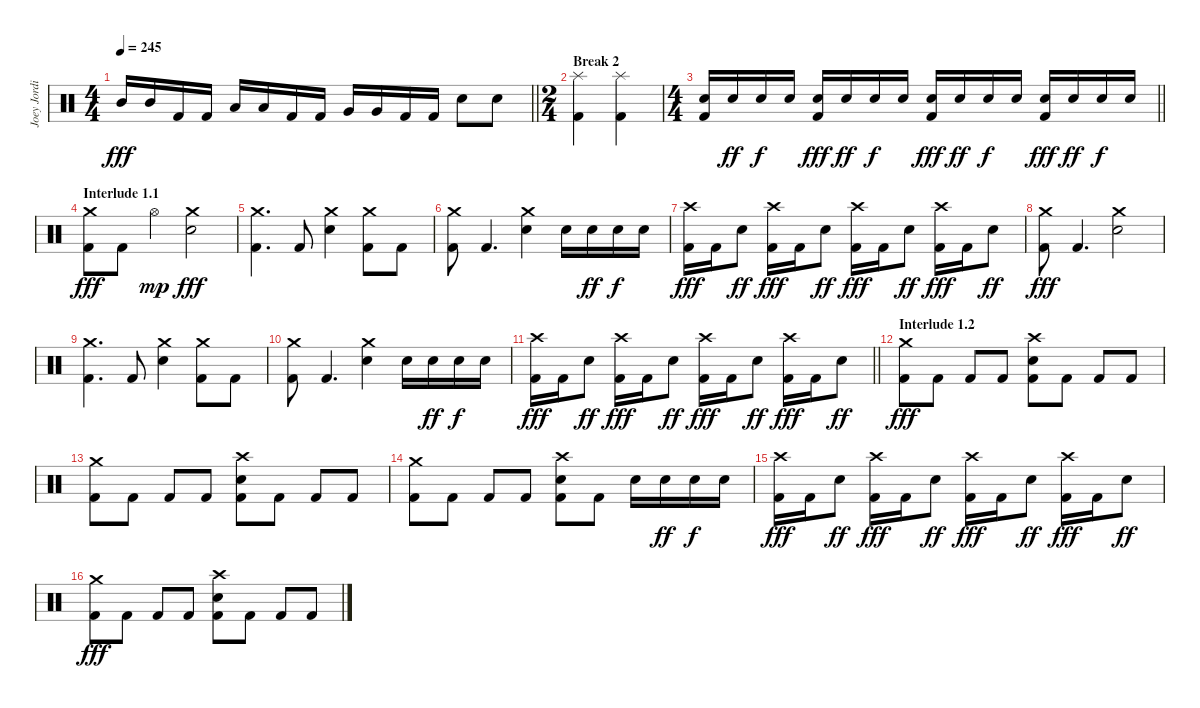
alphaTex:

\track ("Joey Jordison" "Joey Jordi") {instrument percussion}
\staff {score}
\articulation defaults
\ts (4 4)
\tempo 245
\clef neutral
\barLineRight lightlight
\ks c "Mid Tom (hit)".16{dy fff} "Mid Tom (hit)".16 "Kick (hit) 2".16 "Kick (hit) 2".16 "Low Tom (hit)".16 "Low Tom (hit)".16 "Kick (hit) 2".16 "Kick (hit) 2".16 "Very Low Tom (hit)".16 "Very Low Tom (hit)".16 "Kick (hit) 2".16 "Kick (hit) 2".16 "Electric Snare (hit)".8 "Electric Snare (hit)".8
|
\ts (2 4)
\section ("" "Break 2")
("Splash (hit)" "Kick (hit) 2").4 ("Splash (hit)" "Kick (hit) 2").4 |
\ts (4 4)
\barLineRight lightlight
("Electric Snare (hit)" "Kick (hit) 2").16 "Electric Snare (hit)".16{dy ff} "Electric Snare (hit)".16{dy f} "Electric Snare (hit)".16 ("Electric Snare (hit)" "Kick (hit) 2").16{dy fff} "Electric Snare (hit)".16{dy ff} "Electric Snare (hit)".16{dy f} "Electric Snare (hit)".16 ("Electric Snare (hit)" "Kick (hit) 2").16{dy fff} "Electric Snare (hit)".16{dy ff} "Electric Snare (hit)".16{dy f} "Electric Snare (hit)".16 ("Electric Snare (hit)" "Kick (hit) 2").16{dy fff} "Electric Snare (hit)".16{dy ff} "Electric Snare (hit)".16{dy f} "Electric Snare (hit)".16 |
\section ("" "Interlude 1.1")
("Crash medium (hit)" "Kick (hit) 2").8{dy fff} "Kick (hit) 2".8 "Hi-Hat (open)".4{dy mp} ("Crash medium (hit)" "Electric Snare (hit)").2{dy fff} |
("Crash medium (hit)" "Kick (hit) 2").4{d} "Kick (hit) 2".8 ("Crash medium (hit)" "Electric Snare (hit)").4 ("Crash medium (hit)" "Kick (hit) 2").8 "Kick (hit) 2".8 |
("Crash medium (hit)" "Kick (hit) 2").8 "Kick (hit) 2".4{d} ("Crash medium (hit)" "Electric Snare (hit)").4 "Electric Snare (hit)".16 "Electric Snare (hit)".16{dy ff} "Electric Snare (hit)".16{dy f} "Electric Snare (hit)".16 |
("Crash high (hit)" "Kick (hit) 2").16{dy fff} "Kick (hit) 2".16 "Electric Snare (hit)".8{dy ff} ("Crash high (hit)" "Kick (hit) 2").16{dy fff} "Kick (hit) 2".16 "Electric Snare (hit)".8{dy ff} ("Crash high (hit)" "Kick (hit) 2").16{dy fff} "Kick (hit) 2".16 "Electric Snare (hit)".8{dy ff} ("Crash high (hit)" "Kick (hit) 2").16{dy fff} "Kick (hit) 2".16 "Electric Snare (hit)".8{dy ff} |
("Crash medium (hit)" "Kick (hit) 2").8{dy fff} "Kick (hit) 2".4{d} ("Crash medium (hit)" "Electric Snare (hit)").2 |
("Crash medium (hit)" "Kick (hit) 2").4{d} "Kick (hit) 2".8 ("Crash medium (hit)" "Electric Snare (hit)").4 ("Crash medium (hit)" "Kick (hit) 2").8 "Kick (hit) 2".8 |
("Crash medium (hit)" "Kick (hit) 2").8 "Kick (hit) 2".4{d} ("Crash medium (hit)" "Electric Snare (hit)").4 "Electric Snare (hit)".16 "Electric Snare (hit)".16{dy ff} "Electric Snare (hit)".16{dy f} "Electric Snare (hit)".16 |
\barLineRight lightlight
("Crash high (hit)" "Kick (hit) 2").16{dy fff} "Kick (hit) 2".16 "Electric Snare (hit)".8{dy ff} ("Crash high (hit)" "Kick (hit) 2").16{dy fff} "Kick (hit) 2".16 "Electric Snare (hit)".8{dy ff} ("Crash high (hit)" "Kick (hit) 2").16{dy fff} "Kick (hit) 2".16 "Electric Snare (hit)".8{dy ff} ("Crash high (hit)" "Kick (hit) 2").16{dy fff} "Kick (hit) 2".16 "Electric Snare (hit)".8{dy ff} |
\section ("" "Interlude 1.2")
("Crash medium (hit)" "Kick (hit) 2").8{dy fff} "Kick (hit) 2".8 "Kick (hit) 2".8 "Kick (hit) 2".8 ("Crash high (hit)" "Electric Snare (hit)" "Kick (hit) 2").8 "Kick (hit) 2".8 "Kick (hit) 2".8 "Kick (hit) 2".8 |
("Crash medium (hit)" "Kick (hit) 2").8 "Kick (hit) 2".8 "Kick (hit) 2".8 "Kick (hit) 2".8 ("Crash high (hit)" "Electric Snare (hit)" "Kick (hit) 2").8 "Kick (hit) 2".8 "Kick (hit) 2".8 "Kick (hit) 2".8 |
("Crash medium (hit)" "Kick (hit) 2").8 "Kick (hit) 2".8 "Kick (hit) 2".8 "Kick (hit) 2".8 ("Crash high (hit)" "Electric Snare (hit)" "Kick (hit) 2").8 "Kick (hit) 2".8 "Electric Snare (hit)".16 "Electric Snare (hit)".16{dy ff} "Electric Snare (hit)".16{dy f} "Electric Snare (hit)".16 |
("Crash high (hit)" "Kick (hit) 2").16{dy fff} "Kick (hit) 2".16 "Electric Snare (hit)".8{dy ff} ("Crash high (hit)" "Kick (hit) 2").16{dy fff} "Kick (hit) 2".16 "Electric Snare (hit)".8{dy ff} ("Crash high (hit)" "Kick (hit) 2").16{dy fff} "Kick (hit) 2".16 "Electric Snare (hit)".8{dy ff} ("Crash high (hit)" "Kick (hit) 2").16{dy fff} "Kick (hit) 2".16 "Electric Snare (hit)".8{dy ff} |
("Crash medium (hit)" "Kick (hit) 2").8{dy fff} "Kick (hit) 2".8 "Kick (hit) 2".8 "Kick (hit) 2".8 ("Crash high (hit)" "Electric Snare (hit)" "Kick (hit) 2").8 "Kick (hit) 2".8 "Kick (hit) 2".8 "Kick (hit) 2".8
